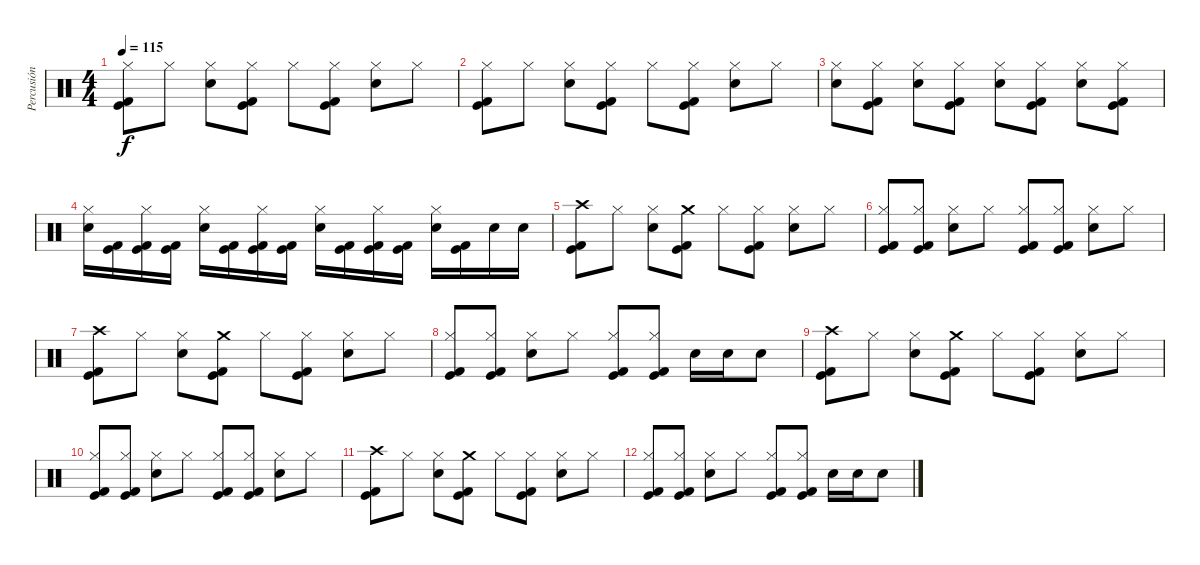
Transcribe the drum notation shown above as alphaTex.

\track ("Percusión" "Percusión") {instrument percussion}
\staff {score}
\articulation defaults
\ts (4 4)
\tempo 115
\clef neutral
\ks c
("Kick (hit) 2" "Hi-Hat (closed)" "Kick (hit)").8{dy f} "Hi-Hat (closed)".8 ("Snare (hit) 2" "Hi-Hat (closed)").8 ("Kick (hit) 2" "Hi-Hat (closed)" "Kick (hit)").8 "Hi-Hat (closed)".8 ("Kick (hit) 2" "Hi-Hat (closed)" "Kick (hit)").8 ("Snare (hit) 2" "Hi-Hat (closed)").8 "Hi-Hat (closed)".8 |
("Kick (hit) 2" "Hi-Hat (closed)" "Kick (hit)").8 "Hi-Hat (closed)".8 ("Snare (hit) 2" "Hi-Hat (closed)").8 ("Kick (hit) 2" "Hi-Hat (closed)" "Kick (hit)").8 "Hi-Hat (closed)".8 ("Kick (hit) 2" "Hi-Hat (closed)" "Kick (hit)").8 ("Snare (hit) 2" "Hi-Hat (closed)").8 "Hi-Hat (closed)".8 |
("Snare (hit) 2" "Hi-Hat (closed)").8 ("Kick (hit) 2" "Hi-Hat (closed)" "Kick (hit)").8 ("Snare (hit) 2" "Hi-Hat (closed)").8 ("Kick (hit) 2" "Hi-Hat (closed)" "Kick (hit)").8 ("Snare (hit) 2" "Hi-Hat (closed)").8 ("Kick (hit) 2" "Hi-Hat (closed)" "Kick (hit)").8 ("Snare (hit) 2" "Hi-Hat (closed)").8 ("Kick (hit) 2" "Hi-Hat (closed)" "Kick (hit)").8 |
("Snare (hit) 2" "Hi-Hat (closed)").16 ("Kick (hit) 2" "Kick (hit)").16 ("Kick (hit) 2" "Hi-Hat (closed)" "Kick (hit)").16 ("Kick (hit) 2" "Kick (hit)").16 ("Snare (hit) 2" "Hi-Hat (closed)").16 ("Kick (hit) 2" "Kick (hit)").16 ("Kick (hit) 2" "Hi-Hat (closed)" "Kick (hit)").16 ("Kick (hit) 2" "Kick (hit)").16 ("Snare (hit) 2" "Hi-Hat (closed)").16 ("Kick (hit) 2" "Kick (hit)").16 ("Kick (hit) 2" "Hi-Hat (closed)" "Kick (hit)").16 ("Kick (hit) 2" "Kick (hit)").16 ("Snare (hit) 2" "Hi-Hat (closed)").16 ("Kick (hit) 2" "Kick (hit)").16 "Snare (hit) 2".16 "Snare (hit) 2".16 |
("Kick (hit) 2" "Crash high (hit)" "Kick (hit)").8 "Hi-Hat (closed)".8 ("Snare (hit) 2" "Hi-Hat (closed)").8 ("Kick (hit) 2" "Crash medium (hit)" "Kick (hit)").8 "Hi-Hat (closed)".8 ("Kick (hit) 2" "Hi-Hat (closed)" "Kick (hit)").8 ("Snare (hit) 2" "Hi-Hat (closed)").8 "Hi-Hat (closed)".8 |
("Kick (hit) 2" "Hi-Hat (closed)" "Kick (hit)").8 ("Kick (hit) 2" "Hi-Hat (closed)" "Kick (hit)").8 ("Snare (hit) 2" "Hi-Hat (closed)").8 "Hi-Hat (closed)".8 ("Kick (hit) 2" "Hi-Hat (closed)" "Kick (hit)").8 ("Kick (hit) 2" "Hi-Hat (closed)" "Kick (hit)").8 ("Snare (hit) 2" "Hi-Hat (closed)").8 "Hi-Hat (closed)".8 |
("Kick (hit) 2" "Crash high (hit)" "Kick (hit)").8 "Hi-Hat (closed)".8 ("Snare (hit) 2" "Hi-Hat (closed)").8 ("Kick (hit) 2" "Crash medium (hit)" "Kick (hit)").8 "Hi-Hat (closed)".8 ("Kick (hit) 2" "Hi-Hat (closed)" "Kick (hit)").8 ("Snare (hit) 2" "Hi-Hat (closed)").8 "Hi-Hat (closed)".8 |
("Kick (hit) 2" "Hi-Hat (closed)" "Kick (hit)").8 ("Kick (hit) 2" "Hi-Hat (closed)" "Kick (hit)").8 ("Snare (hit) 2" "Hi-Hat (closed)").8 "Hi-Hat (closed)".8 ("Kick (hit) 2" "Hi-Hat (closed)" "Kick (hit)").8 ("Kick (hit) 2" "Hi-Hat (closed)" "Kick (hit)").8 "Snare (hit) 2".16 "Snare (hit) 2".16 "Snare (hit) 2".8 |
("Kick (hit) 2" "Crash high (hit)" "Kick (hit)").8 "Hi-Hat (closed)".8 ("Snare (hit) 2" "Hi-Hat (closed)").8 ("Kick (hit) 2" "Crash medium (hit)" "Kick (hit)").8 "Hi-Hat (closed)".8 ("Kick (hit) 2" "Hi-Hat (closed)" "Kick (hit)").8 ("Snare (hit) 2" "Hi-Hat (closed)").8 "Hi-Hat (closed)".8 |
("Kick (hit) 2" "Hi-Hat (closed)" "Kick (hit)").8 ("Kick (hit) 2" "Hi-Hat (closed)" "Kick (hit)").8 ("Snare (hit) 2" "Hi-Hat (closed)").8 "Hi-Hat (closed)".8 ("Kick (hit) 2" "Hi-Hat (closed)" "Kick (hit)").8 ("Kick (hit) 2" "Hi-Hat (closed)" "Kick (hit)").8 ("Snare (hit) 2" "Hi-Hat (closed)").8 "Hi-Hat (closed)".8 |
("Kick (hit) 2" "Crash high (hit)" "Kick (hit)").8 "Hi-Hat (closed)".8 ("Snare (hit) 2" "Hi-Hat (closed)").8 ("Kick (hit) 2" "Crash medium (hit)" "Kick (hit)").8 "Hi-Hat (closed)".8 ("Kick (hit) 2" "Hi-Hat (closed)" "Kick (hit)").8 ("Snare (hit) 2" "Hi-Hat (closed)").8 "Hi-Hat (closed)".8 |
("Kick (hit) 2" "Hi-Hat (closed)" "Kick (hit)").8 ("Kick (hit) 2" "Hi-Hat (closed)" "Kick (hit)").8 ("Snare (hit) 2" "Hi-Hat (closed)").8 "Hi-Hat (closed)".8 ("Kick (hit) 2" "Hi-Hat (closed)" "Kick (hit)").8 ("Kick (hit) 2" "Hi-Hat (closed)" "Kick (hit)").8 "Snare (hit) 2".16 "Snare (hit) 2".16 "Snare (hit) 2".8
